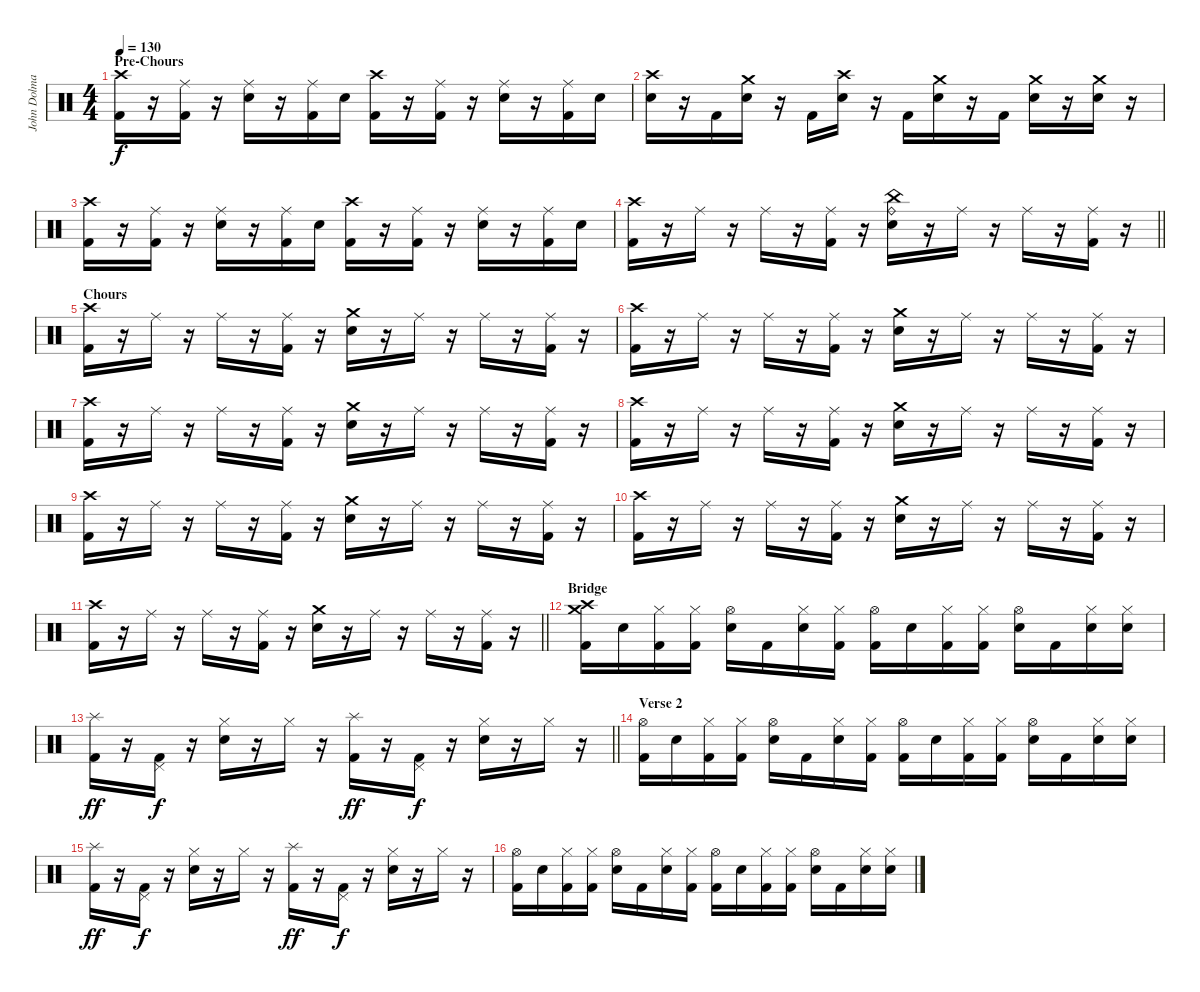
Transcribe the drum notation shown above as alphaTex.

\track ("John Dolmayan" "John Dolma") {instrument percussion}
\staff {score}
\articulation defaults
\ts (4 4)
\section ("" "Pre-Chours")
\tempo 130
\clef neutral
\ks c
("Crash high (hit)" "Kick (hit) 2").16{dy f} r.16 ("Ride (middle)" "Kick (hit) 2").16 r.16 ("Ride (middle)" "Electric Snare (hit)").16 r.16 ("Ride (middle)" "Kick (hit) 2").16 "Electric Snare (hit)".16 ("Crash high (hit)" "Kick (hit) 2").16 r.16 ("Ride (middle)" "Kick (hit) 2").16 r.16 ("Ride (middle)" "Electric Snare (hit)").16 r.16 ("Ride (middle)" "Kick (hit) 2").16 "Electric Snare (hit)".16 |
("Crash high (hit)" "Electric Snare (hit)").16 r.16 "Kick (hit) 2".16 ("Crash medium (hit)" "Electric Snare (hit)").16 r.16 "Kick (hit) 2".16 ("Crash high (hit)" "Electric Snare (hit)").16 r.16 "Kick (hit) 2".16 ("Crash medium (hit)" "Electric Snare (hit)").16 r.16 "Kick (hit) 2".16 ("Crash medium (hit)" "Electric Snare (hit)").16 r.16 ("Crash medium (hit)" "Electric Snare (hit)").16 r.16 |
("Crash high (hit)" "Kick (hit) 2").16 r.16 ("Ride (middle)" "Kick (hit) 2").16 r.16 ("Ride (middle)" "Electric Snare (hit)").16 r.16 ("Ride (middle)" "Kick (hit) 2").16 "Electric Snare (hit)".16 ("Crash high (hit)" "Kick (hit) 2").16 r.16 ("Ride (middle)" "Kick (hit) 2").16 r.16 ("Ride (middle)" "Electric Snare (hit)").16 r.16 ("Ride (middle)" "Kick (hit) 2").16 "Electric Snare (hit)".16 |
\barLineRight lightlight
("Crash high (hit)" "Kick (hit) 2").16 r.16 "Ride (middle)".16 r.16 "Ride (middle)".16 r.16 ("Ride (middle)" "Kick (hit) 2").16 r.16 ("China (hit)" "Ride (bell)" "Electric Snare (hit)").16 r.16 "Ride (middle)".16 r.16 "Ride (middle)".16 r.16 ("Ride (middle)" "Kick (hit) 2").16 r.16 |
\section ("" "Chours")
("Crash high (hit)" "Kick (hit) 2").16 r.16 "Ride (middle)".16 r.16 "Ride (middle)".16 r.16 ("Ride (middle)" "Kick (hit) 2").16 r.16 ("Crash medium (hit)" "Electric Snare (hit)").16 r.16 "Ride (middle)".16 r.16 "Ride (middle)".16 r.16 ("Ride (middle)" "Kick (hit) 2").16 r.16 |
("Crash high (hit)" "Kick (hit) 2").16 r.16 "Ride (middle)".16 r.16 "Ride (middle)".16 r.16 ("Ride (middle)" "Kick (hit) 2").16 r.16 ("Crash medium (hit)" "Electric Snare (hit)").16 r.16 "Ride (middle)".16 r.16 "Ride (middle)".16 r.16 ("Ride (middle)" "Kick (hit) 2").16 r.16 |
("Crash high (hit)" "Kick (hit) 2").16 r.16 "Ride (middle)".16 r.16 "Ride (middle)".16 r.16 ("Ride (middle)" "Kick (hit) 2").16 r.16 ("Crash medium (hit)" "Electric Snare (hit)").16 r.16 "Ride (middle)".16 r.16 "Ride (middle)".16 r.16 ("Ride (middle)" "Kick (hit) 2").16 r.16 |
("Crash high (hit)" "Kick (hit) 2").16 r.16 "Ride (middle)".16 r.16 "Ride (middle)".16 r.16 ("Ride (middle)" "Kick (hit) 2").16 r.16 ("Crash medium (hit)" "Electric Snare (hit)").16 r.16 "Ride (middle)".16 r.16 "Ride (middle)".16 r.16 ("Ride (middle)" "Kick (hit) 2").16 r.16 |
("Crash high (hit)" "Kick (hit) 2").16 r.16 "Ride (middle)".16 r.16 "Ride (middle)".16 r.16 ("Ride (middle)" "Kick (hit) 2").16 r.16 ("Crash medium (hit)" "Electric Snare (hit)").16 r.16 "Ride (middle)".16 r.16 "Ride (middle)".16 r.16 ("Ride (middle)" "Kick (hit) 2").16 r.16 |
("Crash high (hit)" "Kick (hit) 2").16 r.16 "Ride (middle)".16 r.16 "Ride (middle)".16 r.16 ("Ride (middle)" "Kick (hit) 2").16 r.16 ("Crash medium (hit)" "Electric Snare (hit)").16 r.16 "Ride (middle)".16 r.16 "Ride (middle)".16 r.16 ("Ride (middle)" "Kick (hit) 2").16 r.16 |
\barLineRight lightlight
("Crash high (hit)" "Kick (hit) 2").16 r.16 "Ride (middle)".16 r.16 "Ride (middle)".16 r.16 ("Ride (middle)" "Kick (hit) 2").16 r.16 ("Crash medium (hit)" "Electric Snare (hit)").16 r.16 "Ride (middle)".16 r.16 "Ride (middle)".16 r.16 ("Ride (middle)" "Kick (hit) 2").16 r.16 |
\section ("" "Bridge")
("Crash high (hit)" "Crash medium (hit)" "Kick (hit) 2").16 "Electric Snare (hit)".16 ("Hi-Hat (closed)" "Kick (hit) 2").16 ("Hi-Hat (closed)" "Kick (hit) 2").16 ("Hi-Hat (open)" "Electric Snare (hit)").16 "Kick (hit) 2".16 ("Hi-Hat (closed)" "Electric Snare (hit)").16 ("Hi-Hat (closed)" "Kick (hit) 2").16 ("Hi-Hat (open)" "Kick (hit) 2").16 "Electric Snare (hit)".16 ("Hi-Hat (closed)" "Kick (hit) 2").16 ("Hi-Hat (closed)" "Kick (hit) 2").16 ("Hi-Hat (open)" "Electric Snare (hit)").16 "Kick (hit) 2".16 ("Hi-Hat (closed)" "Electric Snare (hit)").16 ("Hi-Hat (closed)" "Electric Snare (hit)").16 |
\barLineRight lightlight
("Splash (hit)" "Kick (hit) 2").16{dy ff} r.16 ("Pedal Hi-Hat (hit)" "Kick (hit) 2").16{dy f} r.16 ("Hi-Hat (closed)" "Electric Snare (hit)").16 r.16 "Hi-Hat (closed)".16 r.16 ("Splash (hit)" "Kick (hit) 2").16{dy ff} r.16 ("Pedal Hi-Hat (hit)" "Kick (hit) 2").16{dy f} r.16 ("Hi-Hat (closed)" "Electric Snare (hit)").16 r.16 "Hi-Hat (closed)".16 r.16 |
\section ("" "Verse 2")
("Hi-Hat (open)" "Kick (hit) 2").16 "Electric Snare (hit)".16 ("Hi-Hat (closed)" "Kick (hit) 2").16 ("Hi-Hat (closed)" "Kick (hit) 2").16 ("Hi-Hat (open)" "Electric Snare (hit)").16 "Kick (hit) 2".16 ("Hi-Hat (closed)" "Electric Snare (hit)").16 ("Hi-Hat (closed)" "Kick (hit) 2").16 ("Hi-Hat (open)" "Kick (hit) 2").16 "Electric Snare (hit)".16 ("Hi-Hat (closed)" "Kick (hit) 2").16 ("Hi-Hat (closed)" "Kick (hit) 2").16 ("Hi-Hat (open)" "Electric Snare (hit)").16 "Kick (hit) 2".16 ("Hi-Hat (closed)" "Electric Snare (hit)").16 ("Hi-Hat (closed)" "Electric Snare (hit)").16 |
("Splash (hit)" "Kick (hit) 2").16{dy ff} r.16 ("Pedal Hi-Hat (hit)" "Kick (hit) 2").16{dy f} r.16 ("Hi-Hat (closed)" "Electric Snare (hit)").16 r.16 "Hi-Hat (closed)".16 r.16 ("Splash (hit)" "Kick (hit) 2").16{dy ff} r.16 ("Pedal Hi-Hat (hit)" "Kick (hit) 2").16{dy f} r.16 ("Hi-Hat (closed)" "Electric Snare (hit)").16 r.16 "Hi-Hat (closed)".16 r.16 |
("Hi-Hat (open)" "Kick (hit) 2").16 "Electric Snare (hit)".16 ("Hi-Hat (closed)" "Kick (hit) 2").16 ("Hi-Hat (closed)" "Kick (hit) 2").16 ("Hi-Hat (open)" "Electric Snare (hit)").16 "Kick (hit) 2".16 ("Hi-Hat (closed)" "Electric Snare (hit)").16 ("Hi-Hat (closed)" "Kick (hit) 2").16 ("Hi-Hat (open)" "Kick (hit) 2").16 "Electric Snare (hit)".16 ("Hi-Hat (closed)" "Kick (hit) 2").16 ("Hi-Hat (closed)" "Kick (hit) 2").16 ("Hi-Hat (open)" "Electric Snare (hit)").16 "Kick (hit) 2".16 ("Hi-Hat (closed)" "Electric Snare (hit)").16 ("Hi-Hat (closed)" "Electric Snare (hit)").16
